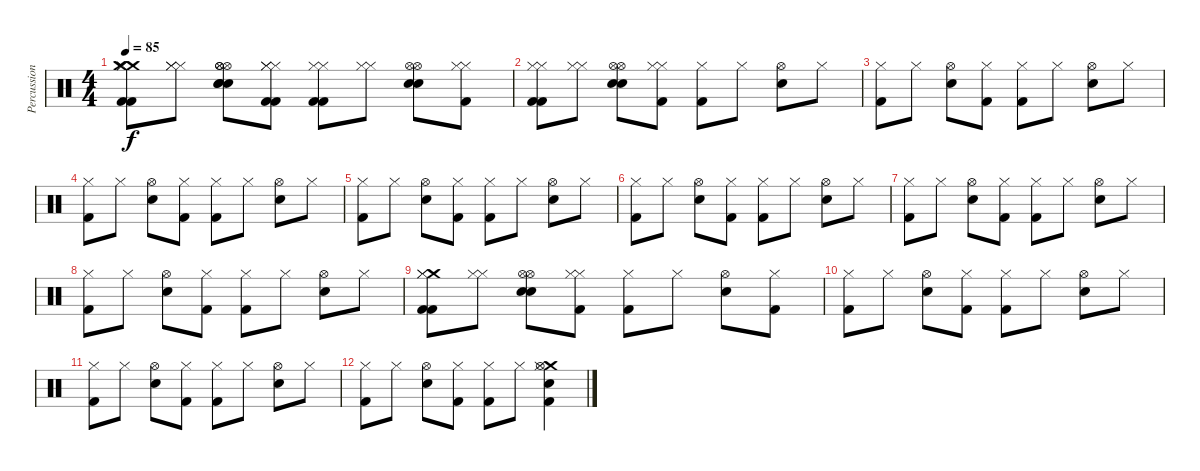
\track ("Percussion" "Percussion") {instrument percussion}
\staff {score}
\articulation defaults
\ts (4 4)
\tempo 85
\clef neutral
\ks c
("Crash medium (hit)" "Kick (hit) 2" "Hi-Hat (closed)" "Crash medium (hit)" "Kick (hit) 2" "Hi-Hat (closed)").8{dy f} ("Hi-Hat (closed)" "Hi-Hat (closed)" "Hi-Hat (closed)").8 ("Hi-Hat (open)" "Electric Snare (hit)" "Hi-Hat (open)" "Electric Snare (hit)" "Hi-Hat (open)" "Electric Snare (hit)").8 ("Kick (hit) 2" "Hi-Hat (closed)" "Hi-Hat (closed)" "Kick (hit) 2" "Hi-Hat (closed)").8 ("Kick (hit) 2" "Hi-Hat (closed)" "Kick (hit) 2" "Hi-Hat (closed)").8 ("Hi-Hat (closed)" "Hi-Hat (closed)").8 ("Hi-Hat (open)" "Electric Snare (hit)" "Hi-Hat (open)" "Electric Snare (hit)").8 ("Hi-Hat (closed)" "Kick (hit) 2" "Hi-Hat (closed)").8 |
("Kick (hit) 2" "Hi-Hat (closed)" "Kick (hit) 2" "Hi-Hat (closed)").8 ("Hi-Hat (closed)" "Hi-Hat (closed)").8 ("Hi-Hat (open)" "Electric Snare (hit)" "Hi-Hat (open)" "Electric Snare (hit)").8 ("Kick (hit) 2" "Hi-Hat (closed)" "Hi-Hat (closed)").8 ("Kick (hit) 2" "Hi-Hat (closed)").8 "Hi-Hat (closed)".8 ("Hi-Hat (open)" "Electric Snare (hit)").8 "Hi-Hat (closed)".8 |
("Kick (hit) 2" "Hi-Hat (closed)").8 "Hi-Hat (closed)".8 ("Hi-Hat (open)" "Electric Snare (hit)").8 ("Kick (hit) 2" "Hi-Hat (closed)").8 ("Kick (hit) 2" "Hi-Hat (closed)").8 "Hi-Hat (closed)".8 ("Hi-Hat (open)" "Electric Snare (hit)").8 "Hi-Hat (closed)".8 |
("Kick (hit) 2" "Hi-Hat (closed)").8 "Hi-Hat (closed)".8 ("Hi-Hat (open)" "Electric Snare (hit)").8 ("Kick (hit) 2" "Hi-Hat (closed)").8 ("Kick (hit) 2" "Hi-Hat (closed)").8 "Hi-Hat (closed)".8 ("Hi-Hat (open)" "Electric Snare (hit)").8 "Hi-Hat (closed)".8 |
("Kick (hit) 2" "Hi-Hat (closed)").8 "Hi-Hat (closed)".8 ("Hi-Hat (open)" "Electric Snare (hit)").8 ("Kick (hit) 2" "Hi-Hat (closed)").8 ("Kick (hit) 2" "Hi-Hat (closed)").8 "Hi-Hat (closed)".8 ("Hi-Hat (open)" "Electric Snare (hit)").8 "Hi-Hat (closed)".8 |
("Kick (hit) 2" "Hi-Hat (closed)").8 "Hi-Hat (closed)".8 ("Hi-Hat (open)" "Electric Snare (hit)").8 ("Kick (hit) 2" "Hi-Hat (closed)").8 ("Kick (hit) 2" "Hi-Hat (closed)").8 "Hi-Hat (closed)".8 ("Hi-Hat (open)" "Electric Snare (hit)").8 "Hi-Hat (closed)".8 |
("Kick (hit) 2" "Hi-Hat (closed)").8 "Hi-Hat (closed)".8 ("Hi-Hat (open)" "Electric Snare (hit)").8 ("Kick (hit) 2" "Hi-Hat (closed)").8 ("Kick (hit) 2" "Hi-Hat (closed)").8 "Hi-Hat (closed)".8 ("Hi-Hat (open)" "Electric Snare (hit)").8 "Hi-Hat (closed)".8 |
("Kick (hit) 2" "Hi-Hat (closed)").8 "Hi-Hat (closed)".8 ("Hi-Hat (open)" "Electric Snare (hit)").8 ("Kick (hit) 2" "Hi-Hat (closed)").8 ("Kick (hit) 2" "Hi-Hat (closed)").8 "Hi-Hat (closed)".8 ("Hi-Hat (open)" "Electric Snare (hit)").8 "Hi-Hat (closed)".8 |
("Crash medium (hit)" "Kick (hit) 2" "Hi-Hat (closed)" "Kick (hit) 2" "Hi-Hat (closed)").8 ("Hi-Hat (closed)" "Hi-Hat (closed)").8 ("Hi-Hat (open)" "Electric Snare (hit)" "Hi-Hat (open)" "Electric Snare (hit)").8 ("Hi-Hat (closed)" "Kick (hit) 2" "Hi-Hat (closed)").8 ("Kick (hit) 2" "Hi-Hat (closed)").8 "Hi-Hat (closed)".8 ("Hi-Hat (open)" "Electric Snare (hit)").8 ("Kick (hit) 2" "Hi-Hat (closed)").8 |
("Kick (hit) 2" "Hi-Hat (closed)").8 "Hi-Hat (closed)".8 ("Hi-Hat (open)" "Electric Snare (hit)").8 ("Kick (hit) 2" "Hi-Hat (closed)").8 ("Kick (hit) 2" "Hi-Hat (closed)").8 "Hi-Hat (closed)".8 ("Hi-Hat (open)" "Electric Snare (hit)").8 "Hi-Hat (closed)".8 |
("Kick (hit) 2" "Hi-Hat (closed)").8 "Hi-Hat (closed)".8 ("Hi-Hat (open)" "Electric Snare (hit)").8 ("Kick (hit) 2" "Hi-Hat (closed)").8 ("Kick (hit) 2" "Hi-Hat (closed)").8 "Hi-Hat (closed)".8 ("Hi-Hat (open)" "Electric Snare (hit)").8 "Hi-Hat (closed)".8 |
("Kick (hit) 2" "Hi-Hat (closed)").8 "Hi-Hat (closed)".8 ("Hi-Hat (open)" "Electric Snare (hit)").8 ("Kick (hit) 2" "Hi-Hat (closed)").8 ("Kick (hit) 2" "Hi-Hat (closed)").8 "Hi-Hat (closed)".8 ("Crash medium (hit)" "Kick (hit) 2" "Electric Snare (hit)" "Hi-Hat (open)" "Hi-Hat (closed)").4
